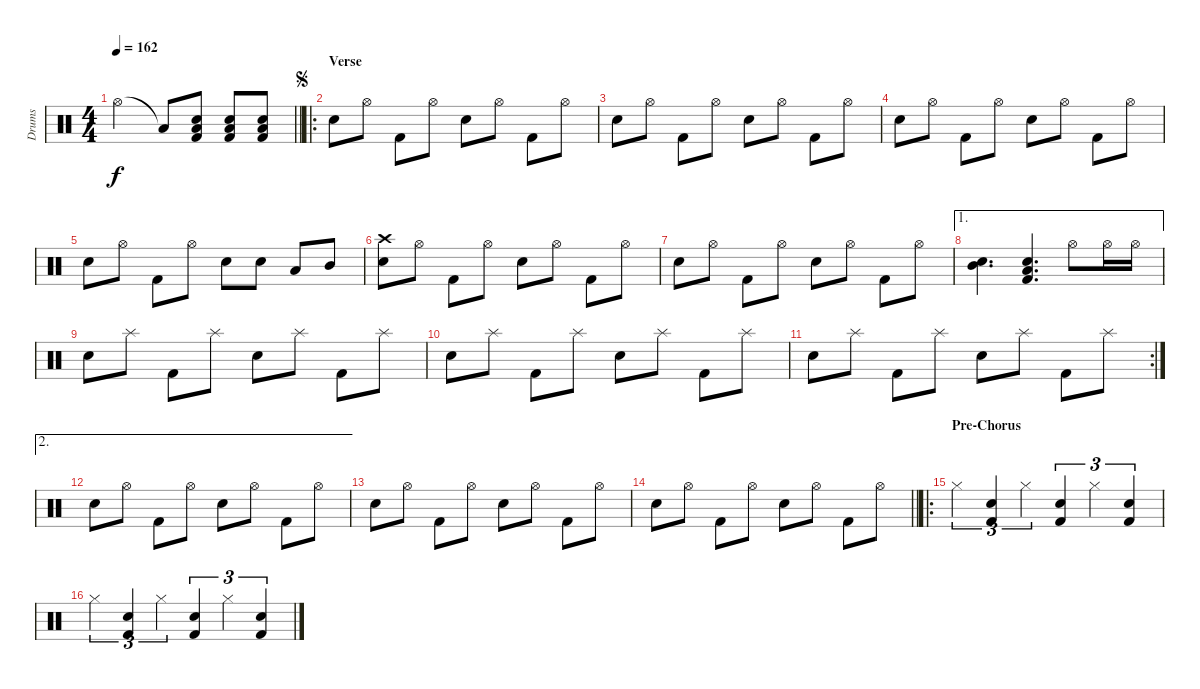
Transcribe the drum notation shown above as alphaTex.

\track ("Drums" "Drums") {instrument percussion}
\staff {score}
\articulation defaults
\ts (4 4)
\tempo 162
\clef neutral
\barLineRight lightlight
\ks c "Hi-Hat (open)"{t}.2{dy f} "Low Tom (hit)"{t}.8
("Low Tom (hit)" "Electric Snare (hit)" "Kick (hit) 2").8 ("Low Tom (hit)" "Electric Snare (hit)" "Kick (hit) 2").8 ("Low Tom (hit)" "Electric Snare (hit)" "Kick (hit) 2").8 |
\ro
\section ("" "Verse")
\jump segno "Electric Snare (hit)".8 "Hi-Hat (open)".8 "Kick (hit) 2".8 "Hi-Hat (open)".8 "Electric Snare (hit)".8 "Hi-Hat (open)".8 "Kick (hit) 2".8 "Hi-Hat (open)".8
|
"Electric Snare (hit)".8 "Hi-Hat (open)".8 "Kick (hit) 2".8 "Hi-Hat (open)".8 "Electric Snare (hit)".8 "Hi-Hat (open)".8 "Kick (hit) 2".8 "Hi-Hat (open)".8 |
"Electric Snare (hit)".8 "Hi-Hat (open)".8 "Kick (hit) 2".8 "Hi-Hat (open)".8 "Electric Snare (hit)".8 "Hi-Hat (open)".8 "Kick (hit) 2".8 "Hi-Hat (open)".8 |
"Electric Snare (hit)".8 "Hi-Hat (open)".8 "Kick (hit) 2".8 "Hi-Hat (open)".8 "Electric Snare (hit)".8 "Electric Snare (hit)".8 "Low Tom (hit)".8 "Mid Tom (hit)".8 |
("Crash high (hit)" "Electric Snare (hit)").8 "Hi-Hat (open)".8 "Kick (hit) 2".8 "Hi-Hat (open)".8 "Electric Snare (hit)".8 "Hi-Hat (open)".8 "Kick (hit) 2".8 "Hi-Hat (open)".8 |
"Electric Snare (hit)".8 "Hi-Hat (open)".8 "Kick (hit) 2".8 "Hi-Hat (open)".8 "Electric Snare (hit)".8 "Hi-Hat (open)".8 "Kick (hit) 2".8 "Hi-Hat (open)".8 |
\ae 1
("Mid Tom (hit)" "Electric Snare (hit)").4{d} ("Low Tom (hit)" "Electric Snare (hit)" "Kick (hit) 2").4{d} "Hi-Hat (open)".8 "Hi-Hat (open)".16 "Hi-Hat (open)".16 |
"Electric Snare (hit)".8 "Splash (hit)".8 "Kick (hit) 2".8 "Splash (hit)".8 "Electric Snare (hit)".8 "Splash (hit)".8 "Kick (hit) 2".8 "Splash (hit)".8 |
"Electric Snare (hit)".8 "Splash (hit)".8 "Kick (hit) 2".8 "Splash (hit)".8 "Electric Snare (hit)".8 "Splash (hit)".8 "Kick (hit) 2".8 "Splash (hit)".8 |
\rc 2 "Electric Snare (hit)".8 "Splash (hit)".8 "Kick (hit) 2".8 "Splash (hit)".8 "Electric Snare (hit)".8 "Splash (hit)".8 "Kick (hit) 2".8 "Splash (hit)".8
|
\ae 2 "Electric Snare (hit)".8 "Hi-Hat (open)".8 "Kick (hit) 2".8 "Hi-Hat (open)".8 "Electric Snare (hit)".8 "Hi-Hat (open)".8 "Kick (hit) 2".8 "Hi-Hat (open)".8
|
"Electric Snare (hit)".8 "Hi-Hat (open)".8 "Kick (hit) 2".8 "Hi-Hat (open)".8 "Electric Snare (hit)".8 "Hi-Hat (open)".8 "Kick (hit) 2".8 "Hi-Hat (open)".8 |
\barLineRight lightlight "Electric Snare (hit)".8 "Hi-Hat (open)".8 "Kick (hit) 2".8 "Hi-Hat (open)".8 "Electric Snare (hit)".8 "Hi-Hat (open)".8 "Kick (hit) 2".8 "Hi-Hat (open)".8
|
\ro
\section ("" "Pre-Chorus")
"Hi-Hat (closed)".4{tu (3 2)} ("Electric Snare (hit)" "Kick (hit) 2").4{tu (3 2)} "Hi-Hat (closed)".4{tu (3 2)} ("Electric Snare (hit)" "Kick (hit) 2").4{tu (3 2)} "Hi-Hat (closed)".4{tu (3 2)} ("Electric Snare (hit)" "Kick (hit) 2").4{tu (3 2)} |
"Hi-Hat (closed)".4{tu (3 2)} ("Electric Snare (hit)" "Kick (hit) 2").4{tu (3 2)} "Hi-Hat (closed)".4{tu (3 2)} ("Electric Snare (hit)" "Kick (hit) 2").4{tu (3 2)} "Hi-Hat (closed)".4{tu (3 2)} ("Electric Snare (hit)" "Kick (hit) 2").4{tu (3 2)}
